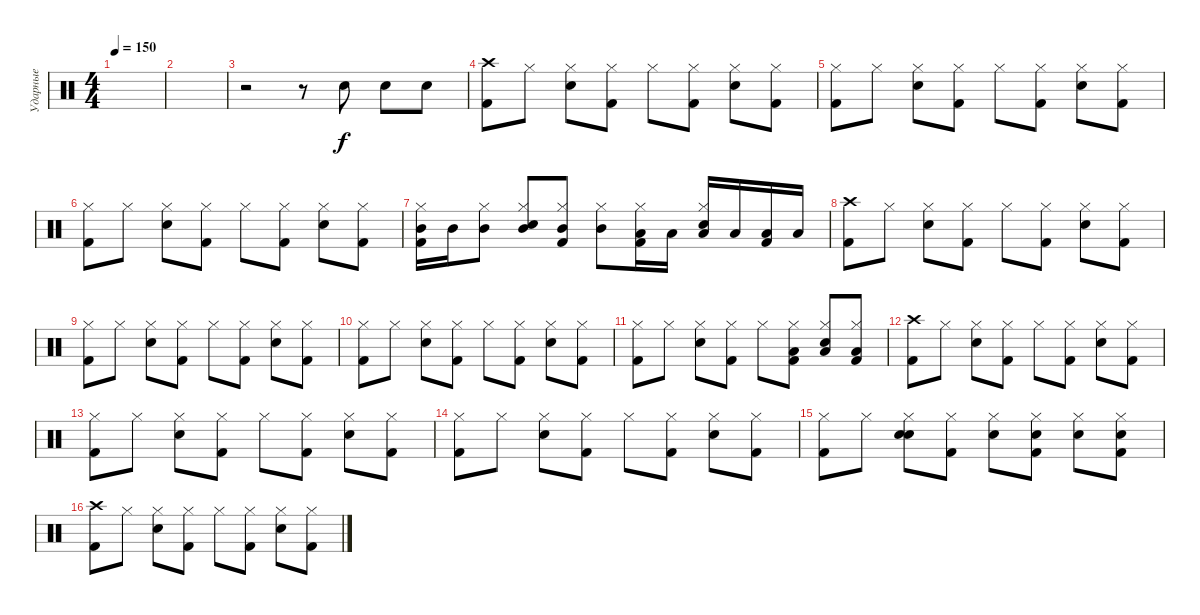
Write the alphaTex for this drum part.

\track ("Ударные" "Ударные") {instrument percussion}
\staff {score}
\articulation defaults
\ts (4 4)
\tempo 150
\clef neutral
\ks c
|
|
r.2 r.8 "Snare (hit) 2".8 "Snare (hit) 2".8 "Snare (hit) 2".8 |
("Crash high (hit)" "Kick (hit) 2").8 "Hi-Hat (closed)".8 ("Hi-Hat (closed)" "Snare (hit) 2").8 ("Hi-Hat (closed)" "Kick (hit) 2").8 "Hi-Hat (closed)".8 ("Hi-Hat (closed)" "Kick (hit) 2").8 ("Hi-Hat (closed)" "Snare (hit) 2").8 ("Hi-Hat (closed)" "Kick (hit) 2").8 |
("Hi-Hat (closed)" "Kick (hit) 2").8 "Hi-Hat (closed)".8 ("Hi-Hat (closed)" "Snare (hit) 2").8 ("Hi-Hat (closed)" "Kick (hit) 2").8 "Hi-Hat (closed)".8 ("Hi-Hat (closed)" "Kick (hit) 2").8 ("Hi-Hat (closed)" "Snare (hit) 2").8 ("Hi-Hat (closed)" "Kick (hit) 2").8 |
("Hi-Hat (closed)" "Kick (hit) 2").8 "Hi-Hat (closed)".8 ("Hi-Hat (closed)" "Snare (hit) 2").8 ("Hi-Hat (closed)" "Kick (hit) 2").8 "Hi-Hat (closed)".8 ("Hi-Hat (closed)" "Kick (hit) 2").8 ("Hi-Hat (closed)" "Snare (hit) 2").8 ("Hi-Hat (closed)" "Kick (hit) 2").8 |
("Mid Tom (hit)" "Hi-Hat (closed)" "Kick (hit) 2").16 "Mid Tom (hit)".16 ("Mid Tom (hit)" "Hi-Hat (closed)").8 ("Mid Tom (hit)" "Hi-Hat (closed)" "Snare (hit) 2").8 ("Mid Tom (hit)" "Hi-Hat (closed)" "Kick (hit) 2").8 ("Mid Tom (hit)" "Hi-Hat (closed)").8 ("Low Tom (hit)" "Hi-Hat (closed)" "Kick (hit) 2").16 "Low Tom (hit)".16 ("Low Tom (hit)" "Hi-Hat (closed)" "Snare (hit) 2").16 "Low Tom (hit)".16 ("Low Tom (hit)" "Kick (hit) 2").16 "Low Tom (hit)".16 |
("Crash high (hit)" "Kick (hit) 2").8 "Hi-Hat (closed)".8 ("Hi-Hat (closed)" "Snare (hit) 2").8 ("Hi-Hat (closed)" "Kick (hit) 2").8 "Hi-Hat (closed)".8 ("Hi-Hat (closed)" "Kick (hit) 2").8 ("Hi-Hat (closed)" "Snare (hit) 2").8 ("Hi-Hat (closed)" "Kick (hit) 2").8 |
("Hi-Hat (closed)" "Kick (hit) 2").8 "Hi-Hat (closed)".8 ("Hi-Hat (closed)" "Snare (hit) 2").8 ("Hi-Hat (closed)" "Kick (hit) 2").8 "Hi-Hat (closed)".8 ("Hi-Hat (closed)" "Kick (hit) 2").8 ("Hi-Hat (closed)" "Snare (hit) 2").8 ("Hi-Hat (closed)" "Kick (hit) 2").8 |
("Hi-Hat (closed)" "Kick (hit) 2").8 "Hi-Hat (closed)".8 ("Hi-Hat (closed)" "Snare (hit) 2").8 ("Hi-Hat (closed)" "Kick (hit) 2").8 "Hi-Hat (closed)".8 ("Hi-Hat (closed)" "Kick (hit) 2").8 ("Hi-Hat (closed)" "Snare (hit) 2").8 ("Hi-Hat (closed)" "Kick (hit) 2").8 |
("Hi-Hat (closed)" "Kick (hit) 2").8 "Hi-Hat (closed)".8 ("Hi-Hat (closed)" "Snare (hit) 2").8 ("Hi-Hat (closed)" "Kick (hit) 2").8 "Hi-Hat (closed)".8 ("Hi-Hat (closed)" "Low Tom (hit)" "Kick (hit) 2").8 ("Hi-Hat (closed)" "Low Tom (hit)" "Snare (hit) 2").8 ("Hi-Hat (closed)" "Low Tom (hit)" "Kick (hit) 2").8 |
("Crash high (hit)" "Kick (hit) 2").8 "Hi-Hat (closed)".8 ("Hi-Hat (closed)" "Snare (hit) 2").8 ("Hi-Hat (closed)" "Kick (hit) 2").8 "Hi-Hat (closed)".8 ("Hi-Hat (closed)" "Kick (hit) 2").8 ("Hi-Hat (closed)" "Snare (hit) 2").8 ("Hi-Hat (closed)" "Kick (hit) 2").8 |
("Hi-Hat (closed)" "Kick (hit) 2").8 "Hi-Hat (closed)".8 ("Hi-Hat (closed)" "Snare (hit) 2").8 ("Hi-Hat (closed)" "Kick (hit) 2").8 "Hi-Hat (closed)".8 ("Hi-Hat (closed)" "Kick (hit) 2").8 ("Hi-Hat (closed)" "Snare (hit) 2").8 ("Hi-Hat (closed)" "Kick (hit) 2").8 |
("Hi-Hat (closed)" "Kick (hit) 2").8 "Hi-Hat (closed)".8 ("Hi-Hat (closed)" "Snare (hit) 2").8 ("Hi-Hat (closed)" "Kick (hit) 2").8 "Hi-Hat (closed)".8 ("Hi-Hat (closed)" "Kick (hit) 2").8 ("Hi-Hat (closed)" "Snare (hit) 2").8 ("Hi-Hat (closed)" "Kick (hit) 2").8 |
("Hi-Hat (closed)" "Kick (hit) 2").8 "Hi-Hat (closed)".8 ("Hi-Hat (closed)" "Hand Clap (hit)" "Snare (hit) 2").8 ("Hi-Hat (closed)" "Kick (hit) 2").8 ("Hi-Hat (closed)" "Hand Clap (hit)").8 ("Hi-Hat (closed)" "Hand Clap (hit)" "Kick (hit) 2").8 ("Hi-Hat (closed)" "Snare (hit) 2").8 ("Hi-Hat (closed)" "Hand Clap (hit)" "Kick (hit) 2").8 |
("Crash high (hit)" "Kick (hit) 2").8 "Hi-Hat (closed)".8 ("Hi-Hat (closed)" "Snare (hit) 2").8 ("Hi-Hat (closed)" "Kick (hit) 2").8 "Hi-Hat (closed)".8 ("Hi-Hat (closed)" "Kick (hit) 2").8 ("Hi-Hat (closed)" "Snare (hit) 2").8 ("Hi-Hat (closed)" "Kick (hit) 2").8
